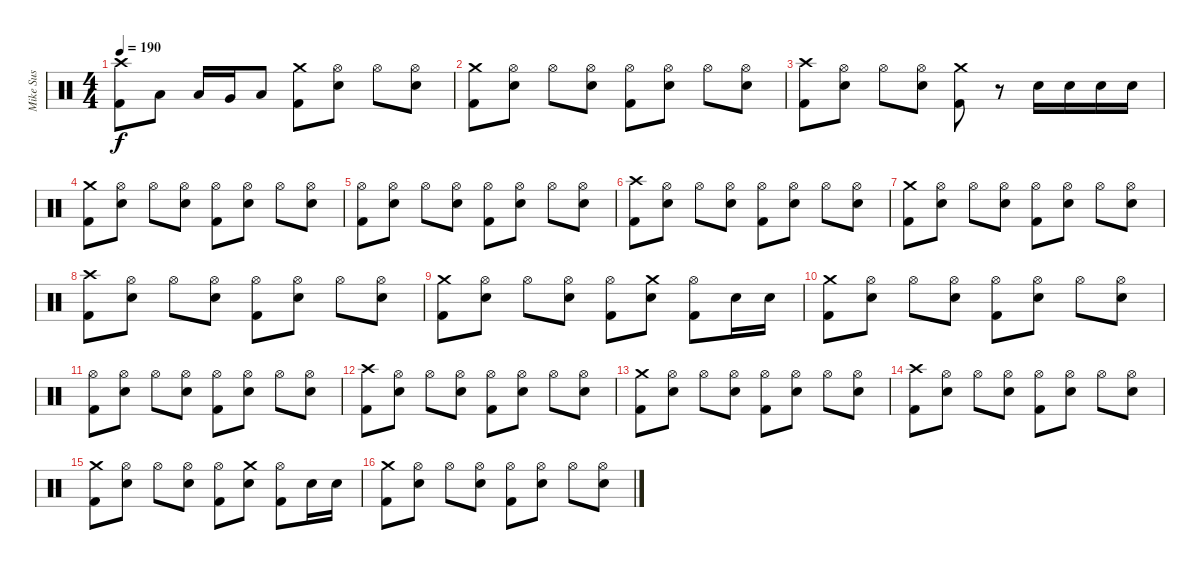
\track ("Mike Sus" "Mike Sus") {instrument percussion}
\staff {score}
\articulation defaults
\ts (4 4)
\tempo 190
\clef neutral
\ks c
("Crash high (hit)" "Kick (hit) 2").8{dy f} "Low Tom (hit)".8 "Low Tom (hit)".16 "Very Low Tom (hit)".16 "Low Floor Tom (hit)".8 ("Crash medium (hit)" "Kick (hit) 2").8 ("Hi-Hat (open)" "Electric Snare (hit)").8 "Hi-Hat (open)".8 ("Hi-Hat (open)" "Electric Snare (hit)").8 |
("Crash medium (hit)" "Kick (hit) 2").8 ("Hi-Hat (open)" "Electric Snare (hit)").8 "Hi-Hat (open)".8 ("Hi-Hat (open)" "Electric Snare (hit)").8 ("Hi-Hat (open)" "Kick (hit) 2").8 ("Hi-Hat (open)" "Electric Snare (hit)").8 "Hi-Hat (open)".8 ("Hi-Hat (open)" "Electric Snare (hit)").8 |
("Crash high (hit)" "Kick (hit) 2").8 ("Hi-Hat (open)" "Electric Snare (hit)").8 "Hi-Hat (open)".8 ("Hi-Hat (open)" "Electric Snare (hit)").8 ("Crash medium (hit)" "Kick (hit) 2").8 r.8 "Electric Snare (hit)".16 "Electric Snare (hit)".16 "Electric Snare (hit)".16 "Electric Snare (hit)".16 |
("Crash medium (hit)" "Kick (hit) 2").8 ("Hi-Hat (open)" "Electric Snare (hit)").8 "Hi-Hat (open)".8 ("Hi-Hat (open)" "Electric Snare (hit)").8 ("Hi-Hat (open)" "Kick (hit) 2").8 ("Hi-Hat (open)" "Electric Snare (hit)").8 "Hi-Hat (open)".8 ("Hi-Hat (open)" "Electric Snare (hit)").8 |
("Hi-Hat (open)" "Kick (hit) 2").8 ("Hi-Hat (open)" "Electric Snare (hit)").8 "Hi-Hat (open)".8 ("Hi-Hat (open)" "Electric Snare (hit)").8 ("Hi-Hat (open)" "Kick (hit) 2").8 ("Hi-Hat (open)" "Electric Snare (hit)").8 "Hi-Hat (open)".8 ("Hi-Hat (open)" "Electric Snare (hit)").8 |
("Crash high (hit)" "Kick (hit) 2").8 ("Hi-Hat (open)" "Electric Snare (hit)").8 "Hi-Hat (open)".8 ("Hi-Hat (open)" "Electric Snare (hit)").8 ("Hi-Hat (open)" "Kick (hit) 2").8 ("Hi-Hat (open)" "Electric Snare (hit)").8 "Hi-Hat (open)".8 ("Hi-Hat (open)" "Electric Snare (hit)").8 |
("Crash medium (hit)" "Kick (hit) 2").8 ("Hi-Hat (open)" "Electric Snare (hit)").8 "Hi-Hat (open)".8 ("Hi-Hat (open)" "Electric Snare (hit)").8 ("Hi-Hat (open)" "Kick (hit) 2").8 ("Hi-Hat (open)" "Electric Snare (hit)").8 "Hi-Hat (open)".8 ("Hi-Hat (open)" "Electric Snare (hit)").8 |
("Crash high (hit)" "Kick (hit) 2").8 ("Hi-Hat (open)" "Electric Snare (hit)").8 "Hi-Hat (open)".8 ("Hi-Hat (open)" "Electric Snare (hit)").8 ("Hi-Hat (open)" "Kick (hit) 2").8 ("Hi-Hat (open)" "Electric Snare (hit)").8 "Hi-Hat (open)".8 ("Hi-Hat (open)" "Electric Snare (hit)").8 |
("Crash medium (hit)" "Kick (hit) 2").8 ("Hi-Hat (open)" "Electric Snare (hit)").8 "Hi-Hat (open)".8 ("Hi-Hat (open)" "Electric Snare (hit)").8 ("Hi-Hat (open)" "Kick (hit) 2").8 ("Crash medium (hit)" "Electric Snare (hit)").8 ("Hi-Hat (open)" "Kick (hit) 2").8 "Electric Snare (hit)".16 "Electric Snare (hit)".16 |
("Crash medium (hit)" "Kick (hit) 2").8 ("Hi-Hat (open)" "Electric Snare (hit)").8 "Hi-Hat (open)".8 ("Hi-Hat (open)" "Electric Snare (hit)").8 ("Hi-Hat (open)" "Kick (hit) 2").8 ("Hi-Hat (open)" "Electric Snare (hit)").8 "Hi-Hat (open)".8 ("Hi-Hat (open)" "Electric Snare (hit)").8 |
("Hi-Hat (open)" "Kick (hit) 2").8 ("Hi-Hat (open)" "Electric Snare (hit)").8 "Hi-Hat (open)".8 ("Hi-Hat (open)" "Electric Snare (hit)").8 ("Hi-Hat (open)" "Kick (hit) 2").8 ("Hi-Hat (open)" "Electric Snare (hit)").8 "Hi-Hat (open)".8 ("Hi-Hat (open)" "Electric Snare (hit)").8 |
("Crash high (hit)" "Kick (hit) 2").8 ("Hi-Hat (open)" "Electric Snare (hit)").8 "Hi-Hat (open)".8 ("Hi-Hat (open)" "Electric Snare (hit)").8 ("Hi-Hat (open)" "Kick (hit) 2").8 ("Hi-Hat (open)" "Electric Snare (hit)").8 "Hi-Hat (open)".8 ("Hi-Hat (open)" "Electric Snare (hit)").8 |
("Crash medium (hit)" "Kick (hit) 2").8 ("Hi-Hat (open)" "Electric Snare (hit)").8 "Hi-Hat (open)".8 ("Hi-Hat (open)" "Electric Snare (hit)").8 ("Hi-Hat (open)" "Kick (hit) 2").8 ("Hi-Hat (open)" "Electric Snare (hit)").8 "Hi-Hat (open)".8 ("Hi-Hat (open)" "Electric Snare (hit)").8 |
("Crash high (hit)" "Kick (hit) 2").8 ("Hi-Hat (open)" "Electric Snare (hit)").8 "Hi-Hat (open)".8 ("Hi-Hat (open)" "Electric Snare (hit)").8 ("Hi-Hat (open)" "Kick (hit) 2").8 ("Hi-Hat (open)" "Electric Snare (hit)").8 "Hi-Hat (open)".8 ("Hi-Hat (open)" "Electric Snare (hit)").8 |
("Crash medium (hit)" "Kick (hit) 2").8 ("Hi-Hat (open)" "Electric Snare (hit)").8 "Hi-Hat (open)".8 ("Hi-Hat (open)" "Electric Snare (hit)").8 ("Hi-Hat (open)" "Kick (hit) 2").8 ("Crash medium (hit)" "Electric Snare (hit)").8 ("Hi-Hat (open)" "Kick (hit) 2").8 "Electric Snare (hit)".16 "Electric Snare (hit)".16 |
("Crash medium (hit)" "Kick (hit) 2").8 ("Hi-Hat (open)" "Electric Snare (hit)").8 "Hi-Hat (open)".8 ("Hi-Hat (open)" "Electric Snare (hit)").8 ("Hi-Hat (open)" "Kick (hit) 2").8 ("Hi-Hat (open)" "Electric Snare (hit)").8 "Hi-Hat (open)".8 ("Hi-Hat (open)" "Electric Snare (hit)").8
